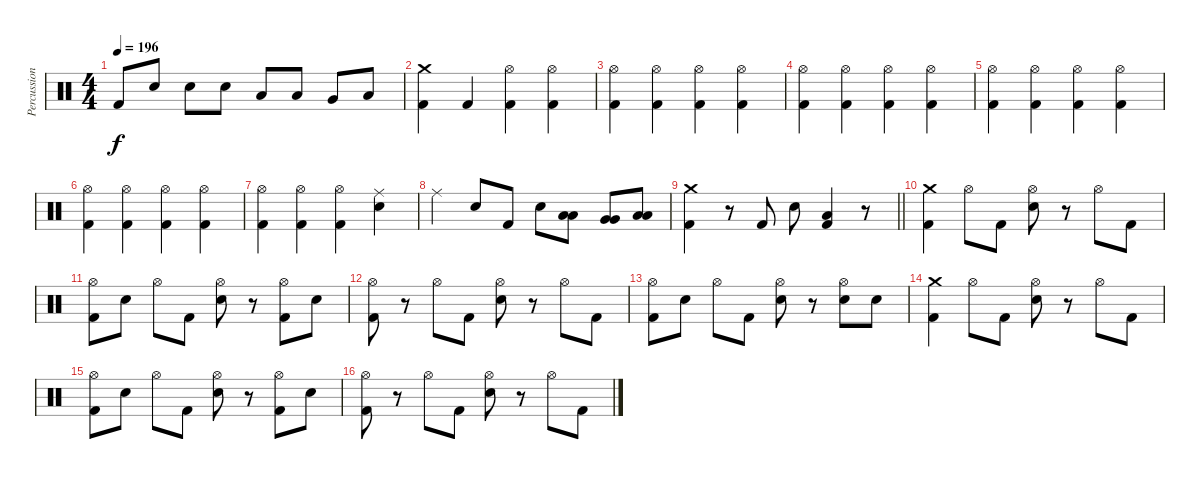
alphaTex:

\track ("Percussion" "Percussion") {instrument percussion}
\staff {score}
\articulation defaults
\ts (4 4)
\tempo 196
\clef neutral
\ks c "Kick (hit) 2".8{dy f} "Electric Snare (hit)".8 "Electric Snare (hit)".8 "Electric Snare (hit)".8 "Low Tom (hit)".8 "Low Tom (hit)".8 "Very Low Tom (hit)".8 "Low Floor Tom (hit)".8
|
("Crash medium (hit)" "Kick (hit) 2").4 "Kick (hit) 2".4 ("Hi-Hat (open)" "Kick (hit) 2").4 ("Hi-Hat (open)" "Kick (hit) 2").4 |
("Hi-Hat (open)" "Kick (hit) 2").4 ("Hi-Hat (open)" "Kick (hit) 2").4 ("Hi-Hat (open)" "Kick (hit) 2").4 ("Hi-Hat (open)" "Kick (hit) 2").4 |
("Hi-Hat (open)" "Kick (hit) 2").4 ("Hi-Hat (open)" "Kick (hit) 2").4 ("Hi-Hat (open)" "Kick (hit) 2").4 ("Hi-Hat (open)" "Kick (hit) 2").4 |
("Hi-Hat (open)" "Kick (hit) 2").4 ("Hi-Hat (open)" "Kick (hit) 2").4 ("Hi-Hat (open)" "Kick (hit) 2").4 ("Hi-Hat (open)" "Kick (hit) 2").4 |
("Hi-Hat (open)" "Kick (hit) 2").4 ("Hi-Hat (open)" "Kick (hit) 2").4 ("Hi-Hat (open)" "Kick (hit) 2").4 ("Hi-Hat (open)" "Kick (hit) 2").4 |
("Hi-Hat (open)" "Kick (hit) 2").4 ("Hi-Hat (open)" "Kick (hit) 2").4 ("Hi-Hat (open)" "Kick (hit) 2").4 ("Ride (middle)" "Electric Snare (hit)").4 |
"Ride (middle)".4 "Electric Snare (hit)".8 "Kick (hit) 2".8 "Electric Snare (hit)".8 ("Low Tom (hit)" "Low Tom (hit)").8 ("Very Low Tom (hit)" "Very Low Tom (hit)").8 ("Low Floor Tom (hit)" "Low Floor Tom (hit)").8 |
\barLineRight lightlight
("Crash medium (hit)" "Kick (hit) 2").4 r.8 "Kick (hit) 2".8 "Electric Snare (hit)".8 ("Low Floor Tom (hit)" "Kick (hit) 2").4 r.8 |
("Crash medium (hit)" "Kick (hit) 2").4 "Hi-Hat (open)".8 "Kick (hit) 2".8 ("Hi-Hat (open)" "Electric Snare (hit)").8 r.8 "Hi-Hat (open)".8 "Kick (hit) 2".8 |
("Hi-Hat (open)" "Kick (hit) 2").8 "Electric Snare (hit)".8 "Hi-Hat (open)".8 "Kick (hit) 2".8 ("Hi-Hat (open)" "Electric Snare (hit)").8 r.8 ("Hi-Hat (open)" "Kick (hit) 2").8 "Electric Snare (hit)".8 |
("Hi-Hat (open)" "Kick (hit) 2").8 r.8 "Hi-Hat (open)".8 "Kick (hit) 2".8 ("Hi-Hat (open)" "Electric Snare (hit)").8 r.8 "Hi-Hat (open)".8 "Kick (hit) 2".8 |
("Hi-Hat (open)" "Kick (hit) 2").8 "Electric Snare (hit)".8 "Hi-Hat (open)".8 "Kick (hit) 2".8 ("Hi-Hat (open)" "Electric Snare (hit)").8 r.8 ("Hi-Hat (open)" "Electric Snare (hit)").8 "Electric Snare (hit)".8 |
("Crash medium (hit)" "Kick (hit) 2").4 "Hi-Hat (open)".8 "Kick (hit) 2".8 ("Hi-Hat (open)" "Electric Snare (hit)").8 r.8 "Hi-Hat (open)".8 "Kick (hit) 2".8 |
("Hi-Hat (open)" "Kick (hit) 2").8 "Electric Snare (hit)".8 "Hi-Hat (open)".8 "Kick (hit) 2".8 ("Hi-Hat (open)" "Electric Snare (hit)").8 r.8 ("Hi-Hat (open)" "Kick (hit) 2").8 "Electric Snare (hit)".8 |
("Hi-Hat (open)" "Kick (hit) 2").8 r.8 "Hi-Hat (open)".8 "Kick (hit) 2".8 ("Hi-Hat (open)" "Electric Snare (hit)").8 r.8 "Hi-Hat (open)".8 "Kick (hit) 2".8
